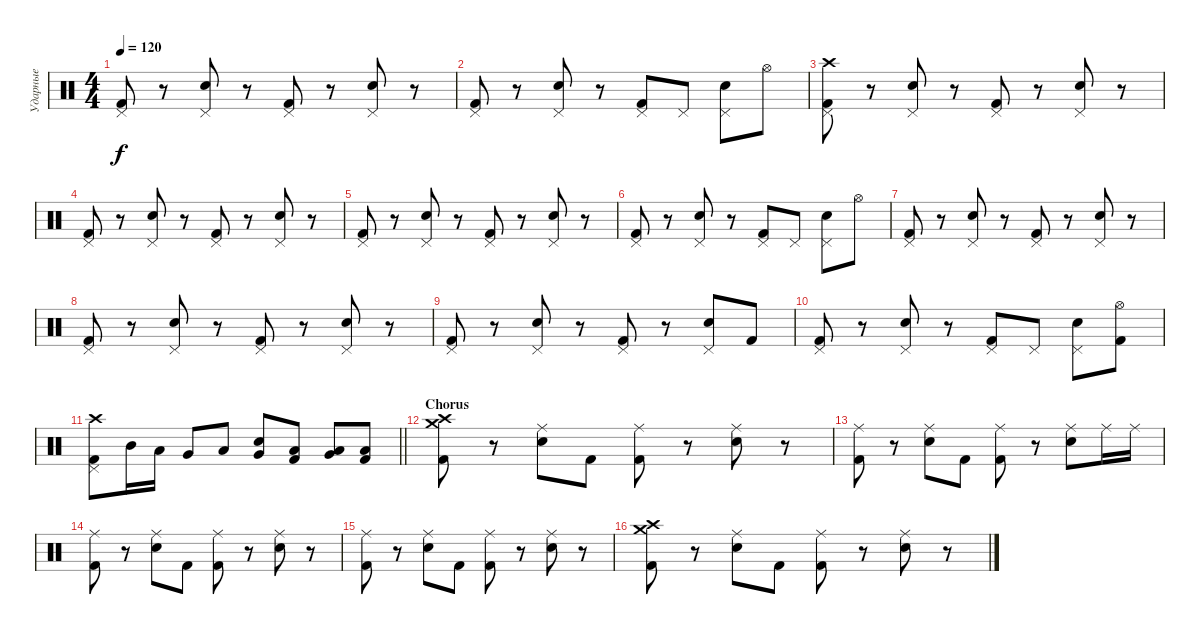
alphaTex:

\track ("Ударные" "Ударные") {instrument percussion}
\staff {score}
\articulation defaults
\ts (4 4)
\tempo 120
\clef neutral
\ks c
("Pedal Hi-Hat (hit)" "Kick (hit) 2").8{dy f} r.8 ("Pedal Hi-Hat (hit)" "Electric Snare (hit)").8 r.8 ("Pedal Hi-Hat (hit)" "Kick (hit) 2").8 r.8 ("Pedal Hi-Hat (hit)" "Electric Snare (hit)").8 r.8 |
("Pedal Hi-Hat (hit)" "Kick (hit) 2").8 r.8 ("Pedal Hi-Hat (hit)" "Electric Snare (hit)").8 r.8 ("Pedal Hi-Hat (hit)" "Kick (hit) 2").8 "Pedal Hi-Hat (hit)".8 ("Pedal Hi-Hat (hit)" "Electric Snare (hit)").8 "Hi-Hat (open)".8 |
("Crash high (hit)" "Pedal Hi-Hat (hit)" "Kick (hit) 2").8 r.8 ("Pedal Hi-Hat (hit)" "Electric Snare (hit)").8 r.8 ("Pedal Hi-Hat (hit)" "Kick (hit) 2").8 r.8 ("Pedal Hi-Hat (hit)" "Electric Snare (hit)").8 r.8 |
("Pedal Hi-Hat (hit)" "Kick (hit) 2").8 r.8 ("Pedal Hi-Hat (hit)" "Electric Snare (hit)").8 r.8 ("Pedal Hi-Hat (hit)" "Kick (hit) 2").8 r.8 ("Pedal Hi-Hat (hit)" "Electric Snare (hit)").8 r.8 |
("Pedal Hi-Hat (hit)" "Kick (hit) 2").8 r.8 ("Pedal Hi-Hat (hit)" "Electric Snare (hit)").8 r.8 ("Pedal Hi-Hat (hit)" "Kick (hit) 2").8 r.8 ("Pedal Hi-Hat (hit)" "Electric Snare (hit)").8 r.8 |
("Pedal Hi-Hat (hit)" "Kick (hit) 2").8 r.8 ("Pedal Hi-Hat (hit)" "Electric Snare (hit)").8 r.8 ("Pedal Hi-Hat (hit)" "Kick (hit) 2").8 "Pedal Hi-Hat (hit)".8 ("Pedal Hi-Hat (hit)" "Electric Snare (hit)").8 "Hi-Hat (open)".8 |
("Pedal Hi-Hat (hit)" "Kick (hit) 2").8 r.8 ("Pedal Hi-Hat (hit)" "Electric Snare (hit)").8 r.8 ("Pedal Hi-Hat (hit)" "Kick (hit) 2").8 r.8 ("Pedal Hi-Hat (hit)" "Electric Snare (hit)").8 r.8 |
("Pedal Hi-Hat (hit)" "Kick (hit) 2").8 r.8 ("Pedal Hi-Hat (hit)" "Electric Snare (hit)").8 r.8 ("Pedal Hi-Hat (hit)" "Kick (hit) 2").8 r.8 ("Pedal Hi-Hat (hit)" "Electric Snare (hit)").8 r.8 |
("Pedal Hi-Hat (hit)" "Kick (hit) 2").8 r.8 ("Pedal Hi-Hat (hit)" "Electric Snare (hit)").8 r.8 ("Pedal Hi-Hat (hit)" "Kick (hit) 2").8 r.8 ("Pedal Hi-Hat (hit)" "Electric Snare (hit)").8 "Kick (hit) 2".8 |
("Pedal Hi-Hat (hit)" "Kick (hit) 2").8 r.8 ("Pedal Hi-Hat (hit)" "Electric Snare (hit)").8 r.8 ("Pedal Hi-Hat (hit)" "Kick (hit) 2").8 "Pedal Hi-Hat (hit)".8 ("Pedal Hi-Hat (hit)" "Electric Snare (hit)").8 ("Hi-Hat (open)" "Kick (hit) 2").8 |
\barLineRight lightlight
("Crash high (hit)" "Pedal Hi-Hat (hit)" "Kick (hit) 2").8 "Mid Tom (hit)".16 "Low Tom (hit)".16 "Very Low Tom (hit)".8 "Low Floor Tom (hit)".8 ("Electric Snare (hit)" "Very Low Tom (hit)").8 ("Low Floor Tom (hit)" "Kick (hit) 2").8 ("Low Tom (hit)" "Very Low Tom (hit)").8 ("Low Floor Tom (hit)" "Kick (hit) 2").8 |
\section ("" "Chorus")
("Crash high (hit)" "Crash medium (hit)" "Kick (hit) 2").8 r.8 ("Ride (middle)" "Electric Snare (hit)").8 "Kick (hit) 2".8 ("Ride (middle)" "Kick (hit) 2").8 r.8 ("Ride (middle)" "Electric Snare (hit)").8 r.8 |
("Ride (middle)" "Kick (hit) 2").8 r.8 ("Ride (middle)" "Electric Snare (hit)").8 "Kick (hit) 2".8 ("Ride (middle)" "Kick (hit) 2").8 r.8 ("Ride (middle)" "Electric Snare (hit)").8 "Ride (middle)".16 "Ride (middle)".16 |
("Ride (middle)" "Kick (hit) 2").8 r.8 ("Ride (middle)" "Electric Snare (hit)").8 "Kick (hit) 2".8 ("Ride (middle)" "Kick (hit) 2").8 r.8 ("Ride (middle)" "Electric Snare (hit)").8 r.8 |
("Ride (middle)" "Kick (hit) 2").8 r.8 ("Ride (middle)" "Electric Snare (hit)").8 "Kick (hit) 2".8 ("Ride (middle)" "Kick (hit) 2").8 r.8 ("Ride (middle)" "Electric Snare (hit)").8 r.8 |
("Crash high (hit)" "Crash medium (hit)" "Kick (hit) 2").8 r.8 ("Ride (middle)" "Electric Snare (hit)").8 "Kick (hit) 2".8 ("Ride (middle)" "Kick (hit) 2").8 r.8 ("Ride (middle)" "Electric Snare (hit)").8 r.8
